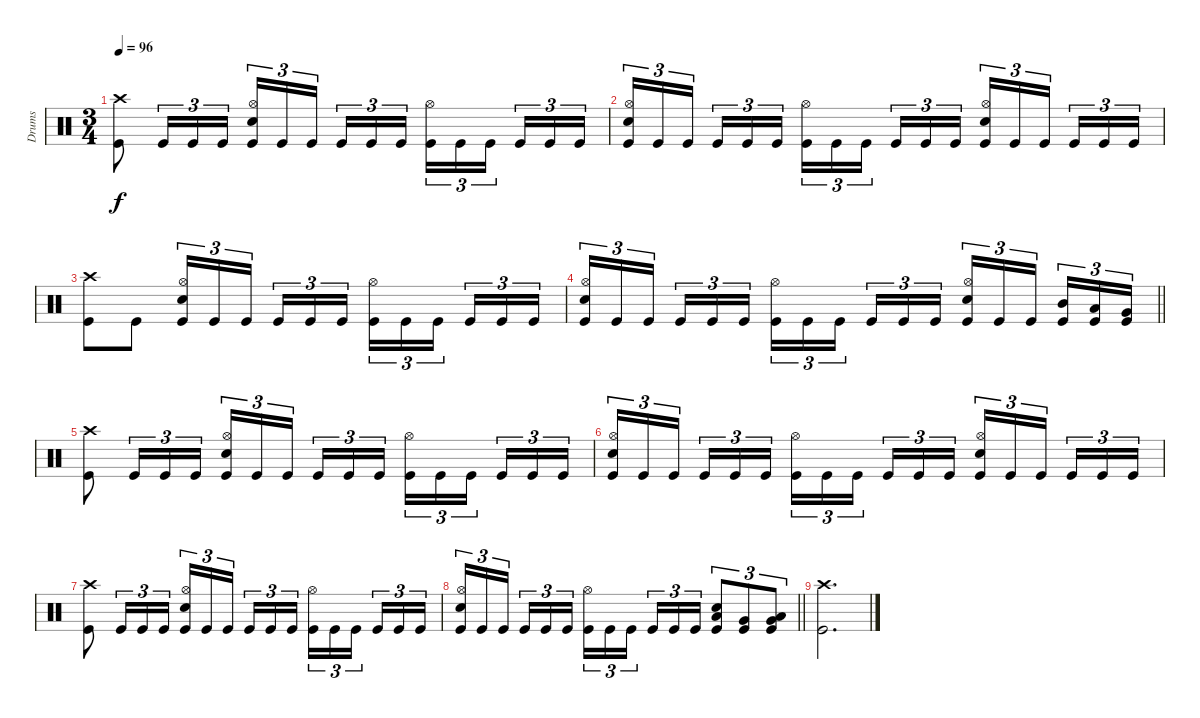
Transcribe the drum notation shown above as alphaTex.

\track ("Drums" "Drums") {instrument percussion}
\staff
\articulation defaults
\ts (3 4)
\tempo 96
\clef neutral
\ks c
("Crash high (hit)" "Kick (hit)").8{dy f} "Kick (hit)".16{tu (3 2)} "Kick (hit)".16{tu (3 2)} "Kick (hit)".16{tu (3 2)} ("Hi-Hat (open)" "Electric Snare (hit)" "Kick (hit)").16{tu (3 2)} "Kick (hit)".16{tu (3 2)} "Kick (hit)".16{tu (3 2) beam splitsecondary} "Kick (hit)".16{tu (3 2)} "Kick (hit)".16{tu (3 2)} "Kick (hit)".16{tu (3 2)} ("Hi-Hat (open)" "Kick (hit)").16{tu (3 2)} "Kick (hit)".16{tu (3 2)} "Kick (hit)".16{tu (3 2) beam splitsecondary} "Kick (hit)".16{tu (3 2)} "Kick (hit)".16{tu (3 2)} "Kick (hit)".16{tu (3 2)} |
("Hi-Hat (open)" "Electric Snare (hit)" "Kick (hit)").16{tu (3 2)} "Kick (hit)".16{tu (3 2)} "Kick (hit)".16{tu (3 2) beam splitsecondary} "Kick (hit)".16{tu (3 2)} "Kick (hit)".16{tu (3 2)} "Kick (hit)".16{tu (3 2)} ("Hi-Hat (open)" "Kick (hit)").16{tu (3 2)} "Kick (hit)".16{tu (3 2)} "Kick (hit)".16{tu (3 2) beam splitsecondary} "Kick (hit)".16{tu (3 2)} "Kick (hit)".16{tu (3 2)} "Kick (hit)".16{tu (3 2)} ("Hi-Hat (open)" "Electric Snare (hit)" "Kick (hit)").16{tu (3 2)} "Kick (hit)".16{tu (3 2)} "Kick (hit)".16{tu (3 2) beam splitsecondary} "Kick (hit)".16{tu (3 2)} "Kick (hit)".16{tu (3 2)} "Kick (hit)".16{tu (3 2)} |
("Crash high (hit)" "Kick (hit)").8 "Kick (hit)".8 ("Hi-Hat (open)" "Electric Snare (hit)" "Kick (hit)").16{tu (3 2)} "Kick (hit)".16{tu (3 2)} "Kick (hit)".16{tu (3 2) beam splitsecondary} "Kick (hit)".16{tu (3 2)} "Kick (hit)".16{tu (3 2)} "Kick (hit)".16{tu (3 2)} ("Hi-Hat (open)" "Kick (hit)").16{tu (3 2)} "Kick (hit)".16{tu (3 2)} "Kick (hit)".16{tu (3 2) beam splitsecondary} "Kick (hit)".16{tu (3 2)} "Kick (hit)".16{tu (3 2)} "Kick (hit)".16{tu (3 2)} |
\barLineRight lightlight
("Hi-Hat (open)" "Electric Snare (hit)" "Kick (hit)").16{tu (3 2)} "Kick (hit)".16{tu (3 2)} "Kick (hit)".16{tu (3 2) beam splitsecondary} "Kick (hit)".16{tu (3 2)} "Kick (hit)".16{tu (3 2)} "Kick (hit)".16{tu (3 2)} ("Hi-Hat (open)" "Kick (hit)").16{tu (3 2)} "Kick (hit)".16{tu (3 2)} "Kick (hit)".16{tu (3 2) beam splitsecondary} "Kick (hit)".16{tu (3 2)} "Kick (hit)".16{tu (3 2)} "Kick (hit)".16{tu (3 2)} ("Hi-Hat (open)" "Electric Snare (hit)" "Kick (hit)").16{tu (3 2)} "Kick (hit)".16{tu (3 2)} "Kick (hit)".16{tu (3 2) beam splitsecondary} ("Mid Tom (hit)" "Kick (hit)").16{tu (3 2)} ("Low Tom (hit)" "Kick (hit)").16{tu (3 2)} ("Very Low Tom (hit)" "Kick (hit)").16{tu (3 2)} |
("Crash high (hit)" "Kick (hit)").8 "Kick (hit)".16{tu (3 2)} "Kick (hit)".16{tu (3 2)} "Kick (hit)".16{tu (3 2)} ("Hi-Hat (open)" "Electric Snare (hit)" "Kick (hit)").16{tu (3 2)} "Kick (hit)".16{tu (3 2)} "Kick (hit)".16{tu (3 2) beam splitsecondary} "Kick (hit)".16{tu (3 2)} "Kick (hit)".16{tu (3 2)} "Kick (hit)".16{tu (3 2)} ("Hi-Hat (open)" "Kick (hit)").16{tu (3 2)} "Kick (hit)".16{tu (3 2)} "Kick (hit)".16{tu (3 2) beam splitsecondary} "Kick (hit)".16{tu (3 2)} "Kick (hit)".16{tu (3 2)} "Kick (hit)".16{tu (3 2)} |
("Hi-Hat (open)" "Electric Snare (hit)" "Kick (hit)").16{tu (3 2)} "Kick (hit)".16{tu (3 2)} "Kick (hit)".16{tu (3 2) beam splitsecondary} "Kick (hit)".16{tu (3 2)} "Kick (hit)".16{tu (3 2)} "Kick (hit)".16{tu (3 2)} ("Hi-Hat (open)" "Kick (hit)").16{tu (3 2)} "Kick (hit)".16{tu (3 2)} "Kick (hit)".16{tu (3 2) beam splitsecondary} "Kick (hit)".16{tu (3 2)} "Kick (hit)".16{tu (3 2)} "Kick (hit)".16{tu (3 2)} ("Hi-Hat (open)" "Electric Snare (hit)" "Kick (hit)").16{tu (3 2)} "Kick (hit)".16{tu (3 2)} "Kick (hit)".16{tu (3 2) beam splitsecondary} "Kick (hit)".16{tu (3 2)} "Kick (hit)".16{tu (3 2)} "Kick (hit)".16{tu (3 2)} |
("Crash high (hit)" "Kick (hit)").8 "Kick (hit)".16{tu (3 2)} "Kick (hit)".16{tu (3 2)} "Kick (hit)".16{tu (3 2)} ("Hi-Hat (open)" "Electric Snare (hit)" "Kick (hit)").16{tu (3 2)} "Kick (hit)".16{tu (3 2)} "Kick (hit)".16{tu (3 2) beam splitsecondary} "Kick (hit)".16{tu (3 2)} "Kick (hit)".16{tu (3 2)} "Kick (hit)".16{tu (3 2)} ("Hi-Hat (open)" "Kick (hit)").16{tu (3 2)} "Kick (hit)".16{tu (3 2)} "Kick (hit)".16{tu (3 2) beam splitsecondary} "Kick (hit)".16{tu (3 2)} "Kick (hit)".16{tu (3 2)} "Kick (hit)".16{tu (3 2)} |
\barLineRight lightlight
("Hi-Hat (open)" "Electric Snare (hit)" "Kick (hit)").16{tu (3 2)} "Kick (hit)".16{tu (3 2)} "Kick (hit)".16{tu (3 2) beam splitsecondary} "Kick (hit)".16{tu (3 2)} "Kick (hit)".16{tu (3 2)} "Kick (hit)".16{tu (3 2)} ("Hi-Hat (open)" "Kick (hit)").16{tu (3 2)} "Kick (hit)".16{tu (3 2)} "Kick (hit)".16{tu (3 2) beam splitsecondary} "Kick (hit)".16{tu (3 2)} "Kick (hit)".16{tu (3 2)} "Kick (hit)".16{tu (3 2)} ("Low Tom (hit)" "Electric Snare (hit)" "Kick (hit)").8{tu (3 2)} ("Very Low Tom (hit)" "Kick (hit)").8{tu (3 2)} ("Very Low Tom (hit)" "Low Floor Tom (hit)" "Kick (hit)").8{tu (3 2)} |
("Crash high (hit)" "Kick (hit)").2{d}
